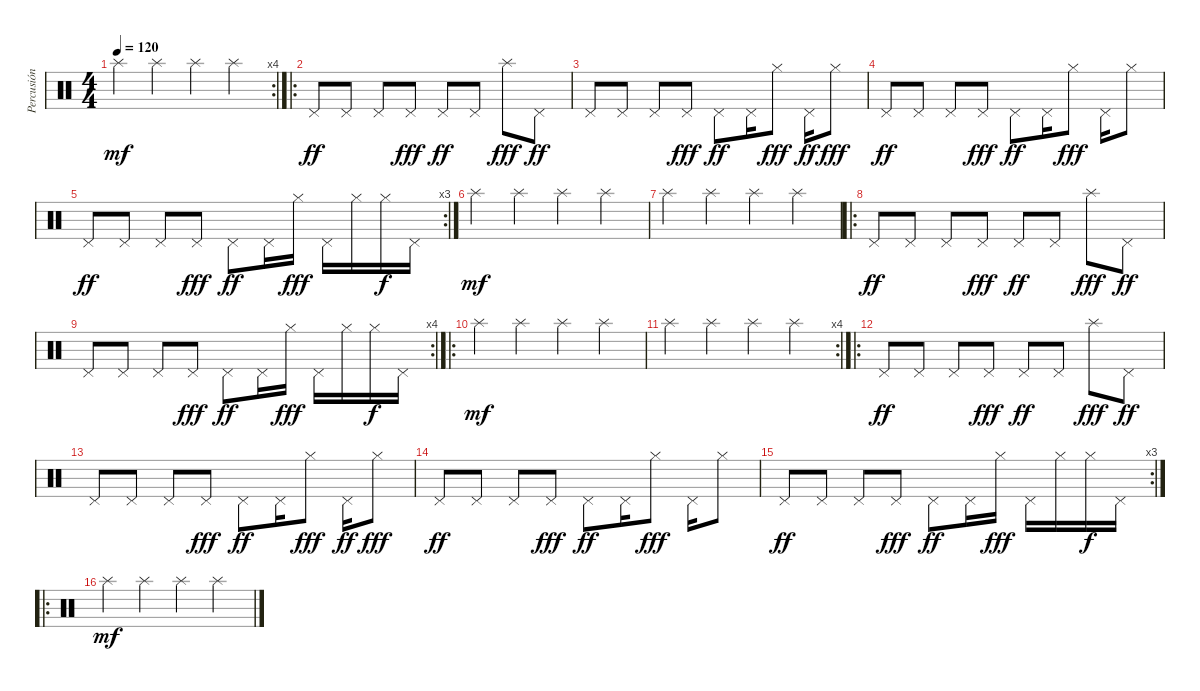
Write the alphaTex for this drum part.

\track ("Percusión" "Percusión") {instrument percussion}
\staff {score}
\articulation defaults
\rc 4
\ts (4 4)
\tempo 120
\clef neutral
\ks c "Splash (hit)".4{dy mf} "Splash (hit)".4 "Splash (hit)".4 "Splash (hit)".4
|
\ro "Pedal Hi-Hat (hit)".8{dy ff} "Pedal Hi-Hat (hit)".8 "Pedal Hi-Hat (hit)".8 "Pedal Hi-Hat (hit)".8{dy fff} "Pedal Hi-Hat (hit)".8{dy ff} "Pedal Hi-Hat (hit)".8 "Splash (hit)".8{dy fff} "Pedal Hi-Hat (hit)".8{dy ff}
|
"Pedal Hi-Hat (hit)".8 "Pedal Hi-Hat (hit)".8 "Pedal Hi-Hat (hit)".8 "Pedal Hi-Hat (hit)".8{dy fff} "Pedal Hi-Hat (hit)".8{dy ff} "Pedal Hi-Hat (hit)".16 "Hi-Hat (closed)".8{dy fff} "Pedal Hi-Hat (hit)".16{dy ff} "Hi-Hat (closed)".8{dy fff} |
"Pedal Hi-Hat (hit)".8{dy ff} "Pedal Hi-Hat (hit)".8 "Pedal Hi-Hat (hit)".8 "Pedal Hi-Hat (hit)".8{dy fff} "Pedal Hi-Hat (hit)".8{dy ff} "Pedal Hi-Hat (hit)".16 "Hi-Hat (closed)".8{dy fff} "Pedal Hi-Hat (hit)".16 "Hi-Hat (closed)".8 |
\rc 3 "Pedal Hi-Hat (hit)".8{dy ff} "Pedal Hi-Hat (hit)".8 "Pedal Hi-Hat (hit)".8 "Pedal Hi-Hat (hit)".8{dy fff} "Pedal Hi-Hat (hit)".8{dy ff} "Pedal Hi-Hat (hit)".16 "Hi-Hat (closed)".16{dy fff} "Pedal Hi-Hat (hit)".16 "Hi-Hat (closed)".16 "Hi-Hat (closed)".16{dy f} "Pedal Hi-Hat (hit)".16
|
"Splash (hit)".4{dy mf} "Splash (hit)".4 "Splash (hit)".4 "Splash (hit)".4 |
"Splash (hit)".4 "Splash (hit)".4 "Splash (hit)".4 "Splash (hit)".4 |
\ro "Pedal Hi-Hat (hit)".8{dy ff} "Pedal Hi-Hat (hit)".8 "Pedal Hi-Hat (hit)".8 "Pedal Hi-Hat (hit)".8{dy fff} "Pedal Hi-Hat (hit)".8{dy ff} "Pedal Hi-Hat (hit)".8 "Splash (hit)".8{dy fff} "Pedal Hi-Hat (hit)".8{dy ff}
|
\rc 4 "Pedal Hi-Hat (hit)".8 "Pedal Hi-Hat (hit)".8 "Pedal Hi-Hat (hit)".8 "Pedal Hi-Hat (hit)".8{dy fff} "Pedal Hi-Hat (hit)".8{dy ff} "Pedal Hi-Hat (hit)".16 "Hi-Hat (closed)".16{dy fff} "Pedal Hi-Hat (hit)".16 "Hi-Hat (closed)".16 "Hi-Hat (closed)".16{dy f} "Pedal Hi-Hat (hit)".16
|
\ro "Splash (hit)".4{dy mf} "Splash (hit)".4 "Splash (hit)".4 "Splash (hit)".4
|
\rc 4 "Splash (hit)".4 "Splash (hit)".4 "Splash (hit)".4 "Splash (hit)".4
|
\ro "Pedal Hi-Hat (hit)".8{dy ff} "Pedal Hi-Hat (hit)".8 "Pedal Hi-Hat (hit)".8 "Pedal Hi-Hat (hit)".8{dy fff} "Pedal Hi-Hat (hit)".8{dy ff} "Pedal Hi-Hat (hit)".8 "Splash (hit)".8{dy fff} "Pedal Hi-Hat (hit)".8{dy ff}
|
"Pedal Hi-Hat (hit)".8 "Pedal Hi-Hat (hit)".8 "Pedal Hi-Hat (hit)".8 "Pedal Hi-Hat (hit)".8{dy fff} "Pedal Hi-Hat (hit)".8{dy ff} "Pedal Hi-Hat (hit)".16 "Hi-Hat (closed)".8{dy fff} "Pedal Hi-Hat (hit)".16{dy ff} "Hi-Hat (closed)".8{dy fff} |
"Pedal Hi-Hat (hit)".8{dy ff} "Pedal Hi-Hat (hit)".8 "Pedal Hi-Hat (hit)".8 "Pedal Hi-Hat (hit)".8{dy fff} "Pedal Hi-Hat (hit)".8{dy ff} "Pedal Hi-Hat (hit)".16 "Hi-Hat (closed)".8{dy fff} "Pedal Hi-Hat (hit)".16 "Hi-Hat (closed)".8 |
\rc 3 "Pedal Hi-Hat (hit)".8{dy ff} "Pedal Hi-Hat (hit)".8 "Pedal Hi-Hat (hit)".8 "Pedal Hi-Hat (hit)".8{dy fff} "Pedal Hi-Hat (hit)".8{dy ff} "Pedal Hi-Hat (hit)".16 "Hi-Hat (closed)".16{dy fff} "Pedal Hi-Hat (hit)".16 "Hi-Hat (closed)".16 "Hi-Hat (closed)".16{dy f} "Pedal Hi-Hat (hit)".16
|
\ro "Splash (hit)".4{dy mf} "Splash (hit)".4 "Splash (hit)".4 "Splash (hit)".4
